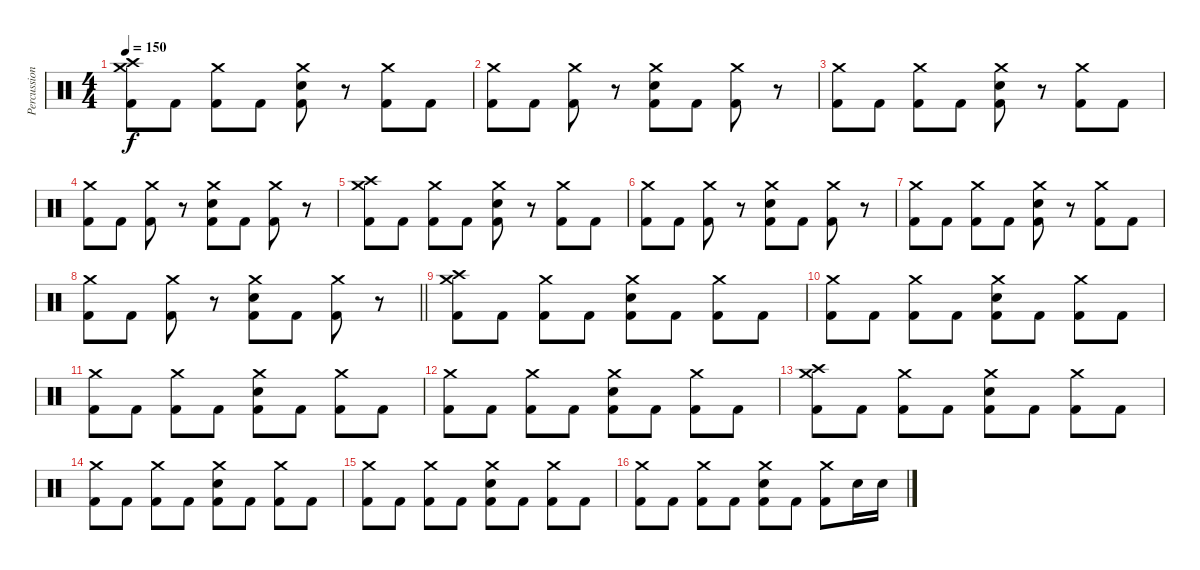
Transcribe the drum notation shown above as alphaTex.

\track ("Percussion" "Percussion") {instrument percussion}
\staff {score}
\articulation defaults
\ts (4 4)
\tempo 150
\clef neutral
\ks c
("Crash medium (hit)" "Crash high (hit)" "Kick (hit) 2").8{dy f} "Kick (hit) 2".8 ("Crash medium (hit)" "Kick (hit) 2").8 "Kick (hit) 2".8 ("Crash medium (hit)" "Electric Snare (hit)" "Kick (hit) 2").8 r.8 ("Crash medium (hit)" "Kick (hit) 2").8 "Kick (hit) 2".8 |
("Crash medium (hit)" "Kick (hit) 2").8 "Kick (hit) 2".8 ("Crash medium (hit)" "Kick (hit) 2").8 r.8 ("Crash medium (hit)" "Electric Snare (hit)" "Kick (hit) 2").8 "Kick (hit) 2".8 ("Crash medium (hit)" "Kick (hit) 2").8 r.8 |
("Crash medium (hit)" "Kick (hit) 2").8 "Kick (hit) 2".8 ("Crash medium (hit)" "Kick (hit) 2").8 "Kick (hit) 2".8 ("Crash medium (hit)" "Electric Snare (hit)" "Kick (hit) 2").8 r.8 ("Crash medium (hit)" "Kick (hit) 2").8 "Kick (hit) 2".8 |
("Crash medium (hit)" "Kick (hit) 2").8 "Kick (hit) 2".8 ("Crash medium (hit)" "Kick (hit) 2").8 r.8 ("Crash medium (hit)" "Electric Snare (hit)" "Kick (hit) 2").8 "Kick (hit) 2".8 ("Crash medium (hit)" "Kick (hit) 2").8 r.8 |
("Crash medium (hit)" "Crash high (hit)" "Kick (hit) 2").8 "Kick (hit) 2".8 ("Crash medium (hit)" "Kick (hit) 2").8 "Kick (hit) 2".8 ("Crash medium (hit)" "Electric Snare (hit)" "Kick (hit) 2").8 r.8 ("Crash medium (hit)" "Kick (hit) 2").8 "Kick (hit) 2".8 |
("Crash medium (hit)" "Kick (hit) 2").8 "Kick (hit) 2".8 ("Crash medium (hit)" "Kick (hit) 2").8 r.8 ("Crash medium (hit)" "Electric Snare (hit)" "Kick (hit) 2").8 "Kick (hit) 2".8 ("Crash medium (hit)" "Kick (hit) 2").8 r.8 |
("Crash medium (hit)" "Kick (hit) 2").8 "Kick (hit) 2".8 ("Crash medium (hit)" "Kick (hit) 2").8 "Kick (hit) 2".8 ("Crash medium (hit)" "Electric Snare (hit)" "Kick (hit) 2").8 r.8 ("Crash medium (hit)" "Kick (hit) 2").8 "Kick (hit) 2".8 |
\barLineRight lightlight
("Crash medium (hit)" "Kick (hit) 2").8 "Kick (hit) 2".8 ("Crash medium (hit)" "Kick (hit) 2").8 r.8 ("Crash medium (hit)" "Electric Snare (hit)" "Kick (hit) 2").8 "Kick (hit) 2".8 ("Crash medium (hit)" "Kick (hit) 2").8 r.8 |
("Crash medium (hit)" "Crash high (hit)" "Kick (hit) 2").8 "Kick (hit) 2".8 ("Crash medium (hit)" "Kick (hit) 2").8 "Kick (hit) 2".8 ("Crash medium (hit)" "Electric Snare (hit)" "Kick (hit) 2").8 "Kick (hit) 2".8 ("Crash medium (hit)" "Kick (hit) 2").8 "Kick (hit) 2".8 |
("Crash medium (hit)" "Kick (hit) 2").8 "Kick (hit) 2".8 ("Crash medium (hit)" "Kick (hit) 2").8 "Kick (hit) 2".8 ("Crash medium (hit)" "Electric Snare (hit)" "Kick (hit) 2").8 "Kick (hit) 2".8 ("Crash medium (hit)" "Kick (hit) 2").8 "Kick (hit) 2".8 |
("Crash medium (hit)" "Kick (hit) 2").8 "Kick (hit) 2".8 ("Crash medium (hit)" "Kick (hit) 2").8 "Kick (hit) 2".8 ("Crash medium (hit)" "Electric Snare (hit)" "Kick (hit) 2").8 "Kick (hit) 2".8 ("Crash medium (hit)" "Kick (hit) 2").8 "Kick (hit) 2".8 |
("Crash medium (hit)" "Kick (hit) 2").8 "Kick (hit) 2".8 ("Crash medium (hit)" "Kick (hit) 2").8 "Kick (hit) 2".8 ("Crash medium (hit)" "Electric Snare (hit)" "Kick (hit) 2").8 "Kick (hit) 2".8 ("Crash medium (hit)" "Kick (hit) 2").8 "Kick (hit) 2".8 |
("Crash medium (hit)" "Crash high (hit)" "Kick (hit) 2").8 "Kick (hit) 2".8 ("Crash medium (hit)" "Kick (hit) 2").8 "Kick (hit) 2".8 ("Crash medium (hit)" "Electric Snare (hit)" "Kick (hit) 2").8 "Kick (hit) 2".8 ("Crash medium (hit)" "Kick (hit) 2").8 "Kick (hit) 2".8 |
("Crash medium (hit)" "Kick (hit) 2").8 "Kick (hit) 2".8 ("Crash medium (hit)" "Kick (hit) 2").8 "Kick (hit) 2".8 ("Crash medium (hit)" "Electric Snare (hit)" "Kick (hit) 2").8 "Kick (hit) 2".8 ("Crash medium (hit)" "Kick (hit) 2").8 "Kick (hit) 2".8 |
("Crash medium (hit)" "Kick (hit) 2").8 "Kick (hit) 2".8 ("Crash medium (hit)" "Kick (hit) 2").8 "Kick (hit) 2".8 ("Crash medium (hit)" "Electric Snare (hit)" "Kick (hit) 2").8 "Kick (hit) 2".8 ("Crash medium (hit)" "Kick (hit) 2").8 "Kick (hit) 2".8 |
("Crash medium (hit)" "Kick (hit) 2").8 "Kick (hit) 2".8 ("Crash medium (hit)" "Kick (hit) 2").8 "Kick (hit) 2".8 ("Crash medium (hit)" "Electric Snare (hit)" "Kick (hit) 2").8 "Kick (hit) 2".8 ("Crash medium (hit)" "Kick (hit) 2").8 "Electric Snare (hit)".16 "Electric Snare (hit)".16
